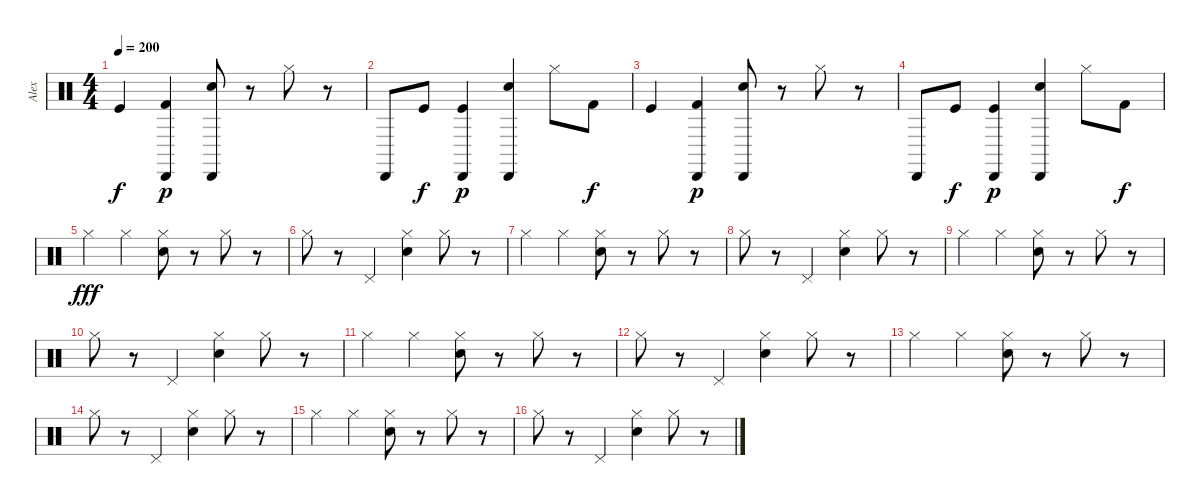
\track ("Alex" "Alex") {instrument percussion}
\staff {score}
\articulation defaults
\ts (4 4)
\tempo 200
\clef neutral
\ks c "Kick (hit)".4{dy f}
("Kick (hit) 2" "Cabasa (hit)").4{dy p} ("Electric Snare (hit)" "Cabasa (hit)").8 r.8 "Hi-Hat (closed)".8 r.8 |
"Cabasa (hit)".8 "Kick (hit)".8{dy f} ("Kick (hit)" "Cabasa (hit)").4{dy p} ("Electric Snare (hit)" "Cabasa (hit)").4 "Hi-Hat (closed)".8 "Kick (hit) 2".8{dy f} |
"Kick (hit)".4 ("Kick (hit) 2" "Cabasa (hit)").4{dy p} ("Electric Snare (hit)" "Cabasa (hit)").8 r.8 "Hi-Hat (closed)".8 r.8 |
"Cabasa (hit)".8 "Kick (hit)".8{dy f} ("Kick (hit)" "Cabasa (hit)").4{dy p} ("Electric Snare (hit)" "Cabasa (hit)").4 "Hi-Hat (closed)".8 "Kick (hit) 2".8{dy f} |
"Hi-Hat (closed)".4{dy fff} "Hi-Hat (closed)".4 ("Electric Snare (hit)" "Hi-Hat (closed)").8 r.8 "Hi-Hat (closed)".8 r.8 |
"Hi-Hat (closed)".8 r.8 "Pedal Hi-Hat (hit)".4 ("Electric Snare (hit)" "Hi-Hat (closed)").4 "Hi-Hat (closed)".8 r.8 |
"Hi-Hat (closed)".4 "Hi-Hat (closed)".4 ("Electric Snare (hit)" "Hi-Hat (closed)").8 r.8 "Hi-Hat (closed)".8 r.8 |
"Hi-Hat (closed)".8 r.8 "Pedal Hi-Hat (hit)".4 ("Electric Snare (hit)" "Hi-Hat (closed)").4 "Hi-Hat (closed)".8 r.8 |
"Hi-Hat (closed)".4 "Hi-Hat (closed)".4 ("Electric Snare (hit)" "Hi-Hat (closed)").8 r.8 "Hi-Hat (closed)".8 r.8 |
"Hi-Hat (closed)".8 r.8 "Pedal Hi-Hat (hit)".4 ("Electric Snare (hit)" "Hi-Hat (closed)").4 "Hi-Hat (closed)".8 r.8 |
"Hi-Hat (closed)".4 "Hi-Hat (closed)".4 ("Electric Snare (hit)" "Hi-Hat (closed)").8 r.8 "Hi-Hat (closed)".8 r.8 |
"Hi-Hat (closed)".8 r.8 "Pedal Hi-Hat (hit)".4 ("Electric Snare (hit)" "Hi-Hat (closed)").4 "Hi-Hat (closed)".8 r.8 |
"Hi-Hat (closed)".4 "Hi-Hat (closed)".4 ("Electric Snare (hit)" "Hi-Hat (closed)").8 r.8 "Hi-Hat (closed)".8 r.8 |
"Hi-Hat (closed)".8 r.8 "Pedal Hi-Hat (hit)".4 ("Electric Snare (hit)" "Hi-Hat (closed)").4 "Hi-Hat (closed)".8 r.8 |
"Hi-Hat (closed)".4 "Hi-Hat (closed)".4 ("Electric Snare (hit)" "Hi-Hat (closed)").8 r.8 "Hi-Hat (closed)".8 r.8 |
"Hi-Hat (closed)".8 r.8 "Pedal Hi-Hat (hit)".4 ("Electric Snare (hit)" "Hi-Hat (closed)").4 "Hi-Hat (closed)".8 r.8
